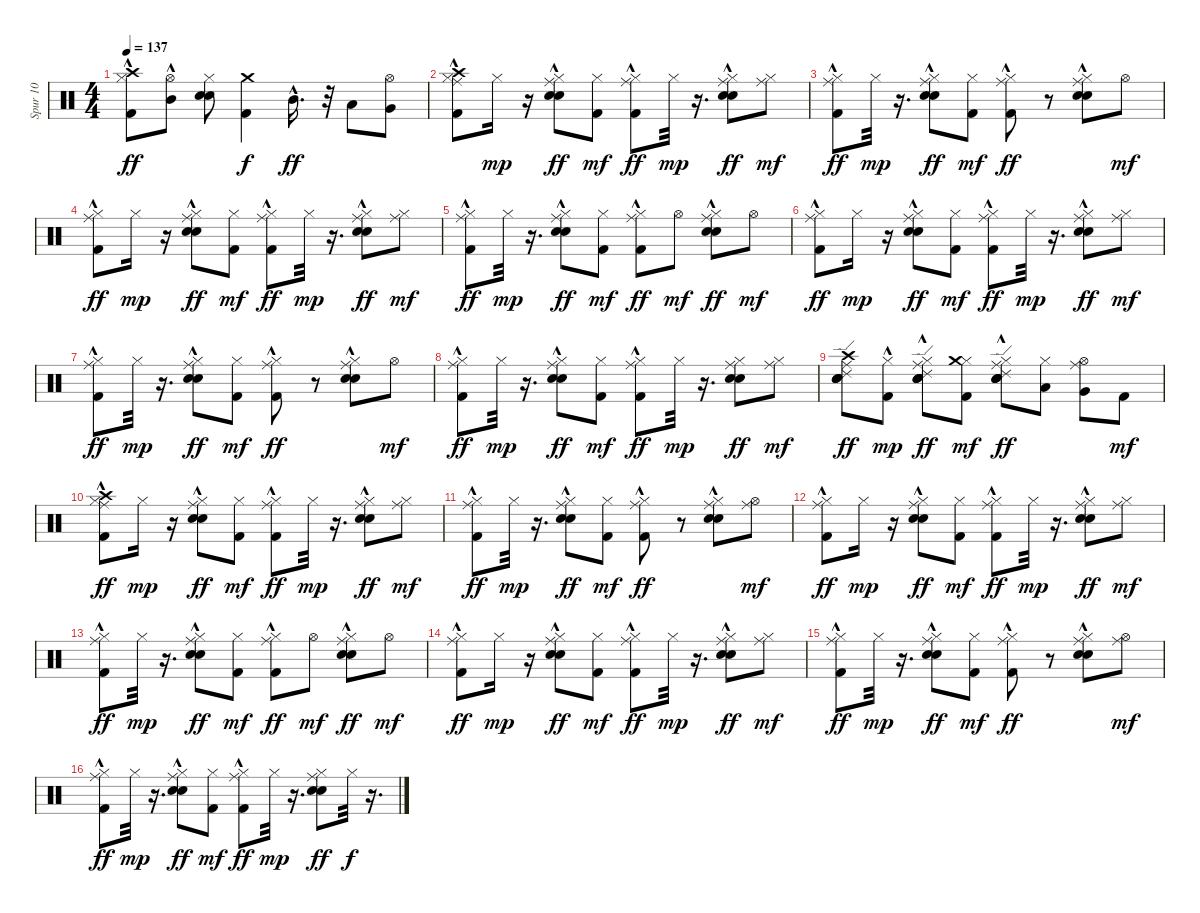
\track ("Spur 10" "Spur 10") {instrument percussion}
\staff {score}
\articulation defaults
\ts (4 4)
\tempo 137
\clef neutral
\ks c
("Kick (hit) 2"{hac} "Crash high (hit)" "Hi-Hat (closed)").8{dy ff} ("Hi-Hat (open)" "Mid Tom (hit)"{hac}).8 ("Electric Snare (hit)" "Snare (hit) 2" "Hi-Hat (closed)").8 ("Kick (hit) 2" "Crash medium (hit)").4{dy f} "Mid Tom (hit)"{hac}.16{d dy ff} r.32 "Low Tom (hit)".8 ("Hi-Hat (open)" "Very Low Tom (hit)").8 |
("Kick (hit) 2"{hac} "Hi-Hat (closed)" "Crash high (hit)" "Ride (middle)").8 "Hi-Hat (closed)".16{dy mp} r.16 ("Electric Snare (hit)"{hac} "Snare (hit) 2"{hac} "Hi-Hat (closed)" "Ride (middle)"{hac}).8{dy ff} ("Kick (hit) 2" "Hi-Hat (closed)").8{dy mf} ("Kick (hit) 2" "Hi-Hat (closed)" "Ride (middle)"{hac}).8{dy ff} "Hi-Hat (closed)".32{dy mp} r.16{d} ("Electric Snare (hit)"{hac} "Snare (hit) 2"{hac} "Hi-Hat (closed)" "Ride (middle)").8{dy ff} ("Hi-Hat (closed)" "Ride (middle)").8{dy mf} |
("Kick (hit) 2"{hac} "Ride (middle)" "Hi-Hat (closed)").8{dy ff} "Hi-Hat (closed)".32{dy mp} r.16{d} ("Electric Snare (hit)"{hac} "Snare (hit) 2"{hac} "Hi-Hat (closed)" "Ride (middle)"{hac}).8{dy ff} ("Kick (hit) 2" "Hi-Hat (closed)").8{dy mf} ("Kick (hit) 2" "Hi-Hat (closed)" "Ride (middle)"{hac}).8{dy ff} r.8 ("Electric Snare (hit)"{hac} "Snare (hit) 2"{hac} "Hi-Hat (closed)" "Ride (middle)").8 "Hi-Hat (open)".8{dy mf} |
("Kick (hit) 2"{hac} "Hi-Hat (closed)" "Ride (middle)").8{dy ff} "Hi-Hat (closed)".16{dy mp} r.16 ("Electric Snare (hit)"{hac} "Snare (hit) 2"{hac} "Hi-Hat (closed)" "Ride (middle)"{hac}).8{dy ff} ("Kick (hit) 2" "Hi-Hat (closed)").8{dy mf} ("Kick (hit) 2" "Hi-Hat (closed)" "Ride (middle)"{hac}).8{dy ff} "Hi-Hat (closed)".32{dy mp} r.16{d} ("Electric Snare (hit)"{hac} "Snare (hit) 2"{hac} "Hi-Hat (closed)" "Ride (middle)").8{dy ff} ("Hi-Hat (closed)" "Ride (middle)").8{dy mf} |
("Kick (hit) 2"{hac} "Ride (middle)" "Hi-Hat (closed)").8{dy ff} "Hi-Hat (closed)".32{dy mp} r.16{d} ("Electric Snare (hit)"{hac} "Snare (hit) 2"{hac} "Hi-Hat (closed)" "Ride (middle)"{hac}).8{dy ff} ("Kick (hit) 2" "Hi-Hat (closed)").8{dy mf} ("Kick (hit) 2" "Hi-Hat (closed)" "Ride (middle)"{hac}).8{dy ff} "Hi-Hat (open)".8{dy mf} ("Electric Snare (hit)"{hac} "Snare (hit) 2"{hac} "Hi-Hat (closed)" "Ride (middle)").8{dy ff} "Hi-Hat (open)".8{dy mf} |
("Kick (hit) 2"{hac} "Hi-Hat (closed)" "Ride (middle)").8{dy ff} "Hi-Hat (closed)".16{dy mp} r.16 ("Electric Snare (hit)"{hac} "Snare (hit) 2"{hac} "Hi-Hat (closed)" "Ride (middle)"{hac}).8{dy ff} ("Kick (hit) 2" "Hi-Hat (closed)").8{dy mf} ("Kick (hit) 2" "Hi-Hat (closed)" "Ride (middle)"{hac}).8{dy ff} "Hi-Hat (closed)".32{dy mp} r.16{d} ("Electric Snare (hit)"{hac} "Snare (hit) 2"{hac} "Hi-Hat (closed)" "Ride (middle)").8{dy ff} ("Hi-Hat (closed)" "Ride (middle)").8{dy mf} |
("Kick (hit) 2"{hac} "Ride (middle)" "Hi-Hat (closed)").8{dy ff} "Hi-Hat (closed)".32{dy mp} r.16{d} ("Electric Snare (hit)"{hac} "Snare (hit) 2"{hac} "Hi-Hat (closed)" "Ride (middle)"{hac}).8{dy ff} ("Kick (hit) 2" "Hi-Hat (closed)").8{dy mf} ("Kick (hit) 2" "Hi-Hat (closed)" "Ride (middle)"{hac}).8{dy ff} r.8 ("Electric Snare (hit)"{hac} "Snare (hit) 2"{hac} "Hi-Hat (closed)" "Ride (middle)").8 "Hi-Hat (open)".8{dy mf} |
("Kick (hit) 2"{hac} "Hi-Hat (closed)" "Ride (middle)").8{dy ff} "Hi-Hat (closed)".32{dy mp} r.16{d} ("Electric Snare (hit)"{hac} "Snare (hit) 2"{hac} "Hi-Hat (closed)" "Ride (middle)"{hac}).8{dy ff} ("Kick (hit) 2" "Hi-Hat (closed)").8{dy mf} ("Kick (hit) 2" "Hi-Hat (closed)" "Ride (middle)"{hac}).8{dy ff} "Hi-Hat (closed)".32{dy mp} r.16{d} ("Electric Snare (hit)" "Snare (hit) 2" "Hi-Hat (closed)" "Ride (middle)").8{dy ff} ("Hi-Hat (closed)" "Ride (middle)").8{dy mf} |
("Snare (hit)" "Electric Snare (hit)" "Ride (edge) 2" "Snare (hit) 2" "Ride (middle)" "Crash high (hit)").8{dy ff} ("Kick (hit) 2"{hac} "Hi-Hat (closed)").8{dy mp} ("Snare (hit)" "Electric Snare (hit)" "Ride (edge) 2" "Snare (hit) 2" "Hi-Hat (closed)" "Ride (middle)"{hac}).8{dy ff} ("Kick (hit) 2" "Hi-Hat (closed)" "Crash medium (hit)").8{dy mf} ("Snare (hit)" "Electric Snare (hit)" "Ride (edge) 2" "Snare (hit) 2" "Hi-Hat (closed)" "Ride (middle)"{hac}).8{dy ff} ("Hi-Hat (closed)" "Low Tom (hit)").8 ("Hi-Hat (open)" "Very Low Tom (hit)" "Ride (middle)").8 "Kick (hit) 2".8{dy mf} |
("Kick (hit) 2"{hac} "Hi-Hat (closed)" "Crash high (hit)" "Ride (middle)").8{dy ff} "Hi-Hat (closed)".16{dy mp} r.16 ("Electric Snare (hit)"{hac} "Snare (hit) 2"{hac} "Hi-Hat (closed)" "Ride (middle)"{hac}).8{dy ff} ("Kick (hit) 2" "Hi-Hat (closed)").8{dy mf} ("Kick (hit) 2" "Hi-Hat (closed)" "Ride (middle)"{hac}).8{dy ff} "Hi-Hat (closed)".32{dy mp} r.16{d} ("Electric Snare (hit)"{hac} "Snare (hit) 2"{hac} "Hi-Hat (closed)" "Ride (middle)").8{dy ff} ("Hi-Hat (closed)" "Ride (middle)").8{dy mf} |
("Kick (hit) 2"{hac} "Ride (middle)" "Hi-Hat (closed)").8{dy ff} "Hi-Hat (closed)".32{dy mp} r.16{d} ("Electric Snare (hit)"{hac} "Snare (hit) 2"{hac} "Hi-Hat (closed)" "Ride (middle)"{hac}).8{dy ff} ("Kick (hit) 2" "Hi-Hat (closed)").8{dy mf} ("Kick (hit) 2" "Hi-Hat (closed)" "Ride (middle)"{hac}).8{dy ff} r.8 ("Electric Snare (hit)"{hac} "Snare (hit) 2"{hac} "Hi-Hat (closed)" "Ride (middle)").8 ("Hi-Hat (open)" "Ride (middle)").8{dy mf} |
("Kick (hit) 2"{hac} "Hi-Hat (closed)" "Ride (middle)").8{dy ff} "Hi-Hat (closed)".16{dy mp} r.16 ("Electric Snare (hit)"{hac} "Snare (hit) 2"{hac} "Hi-Hat (closed)" "Ride (middle)"{hac}).8{dy ff} ("Kick (hit) 2" "Hi-Hat (closed)").8{dy mf} ("Kick (hit) 2" "Hi-Hat (closed)" "Ride (middle)"{hac}).8{dy ff} "Hi-Hat (closed)".32{dy mp} r.16{d} ("Electric Snare (hit)"{hac} "Snare (hit) 2"{hac} "Hi-Hat (closed)" "Ride (middle)").8{dy ff} ("Hi-Hat (closed)" "Ride (middle)").8{dy mf} |
("Kick (hit) 2"{hac} "Ride (middle)" "Hi-Hat (closed)").8{dy ff} "Hi-Hat (closed)".32{dy mp} r.16{d} ("Electric Snare (hit)"{hac} "Snare (hit) 2"{hac} "Hi-Hat (closed)" "Ride (middle)"{hac}).8{dy ff} ("Kick (hit) 2" "Hi-Hat (closed)").8{dy mf} ("Kick (hit) 2" "Hi-Hat (closed)" "Ride (middle)"{hac}).8{dy ff} "Hi-Hat (open)".8{dy mf} ("Electric Snare (hit)"{hac} "Snare (hit) 2"{hac} "Hi-Hat (closed)" "Ride (middle)").8{dy ff} "Hi-Hat (open)".8{dy mf} |
("Kick (hit) 2"{hac} "Hi-Hat (closed)" "Ride (middle)").8{dy ff} "Hi-Hat (closed)".16{dy mp} r.16 ("Electric Snare (hit)"{hac} "Snare (hit) 2"{hac} "Hi-Hat (closed)" "Ride (middle)"{hac}).8{dy ff} ("Kick (hit) 2" "Hi-Hat (closed)").8{dy mf} ("Kick (hit) 2" "Hi-Hat (closed)" "Ride (middle)"{hac}).8{dy ff} "Hi-Hat (closed)".32{dy mp} r.16{d} ("Electric Snare (hit)"{hac} "Snare (hit) 2"{hac} "Hi-Hat (closed)" "Ride (middle)").8{dy ff} ("Hi-Hat (closed)" "Ride (middle)").8{dy mf} |
("Kick (hit) 2"{hac} "Ride (middle)" "Hi-Hat (closed)").8{dy ff} "Hi-Hat (closed)".32{dy mp} r.16{d} ("Electric Snare (hit)"{hac} "Snare (hit) 2"{hac} "Hi-Hat (closed)" "Ride (middle)"{hac}).8{dy ff} ("Kick (hit) 2" "Hi-Hat (closed)").8{dy mf} ("Kick (hit) 2" "Hi-Hat (closed)" "Ride (middle)"{hac}).8{dy ff} r.8 ("Electric Snare (hit)"{hac} "Snare (hit) 2"{hac} "Hi-Hat (closed)" "Ride (middle)").8 ("Hi-Hat (open)" "Ride (middle)").8{dy mf} |
("Kick (hit) 2"{hac} "Hi-Hat (closed)" "Ride (middle)").8{dy ff} "Hi-Hat (closed)".32{dy mp} r.16{d} ("Electric Snare (hit)"{hac} "Snare (hit) 2"{hac} "Hi-Hat (closed)" "Ride (middle)"{hac}).8{dy ff} ("Kick (hit) 2" "Hi-Hat (closed)").8{dy mf} ("Kick (hit) 2" "Hi-Hat (closed)" "Ride (middle)"{hac}).8{dy ff} "Hi-Hat (closed)".32{dy mp} r.16{d} ("Electric Snare (hit)" "Snare (hit) 2" "Hi-Hat (closed)" "Ride (middle)").8{dy ff} "Hi-Hat (closed)".32{dy f} r.16{d}
